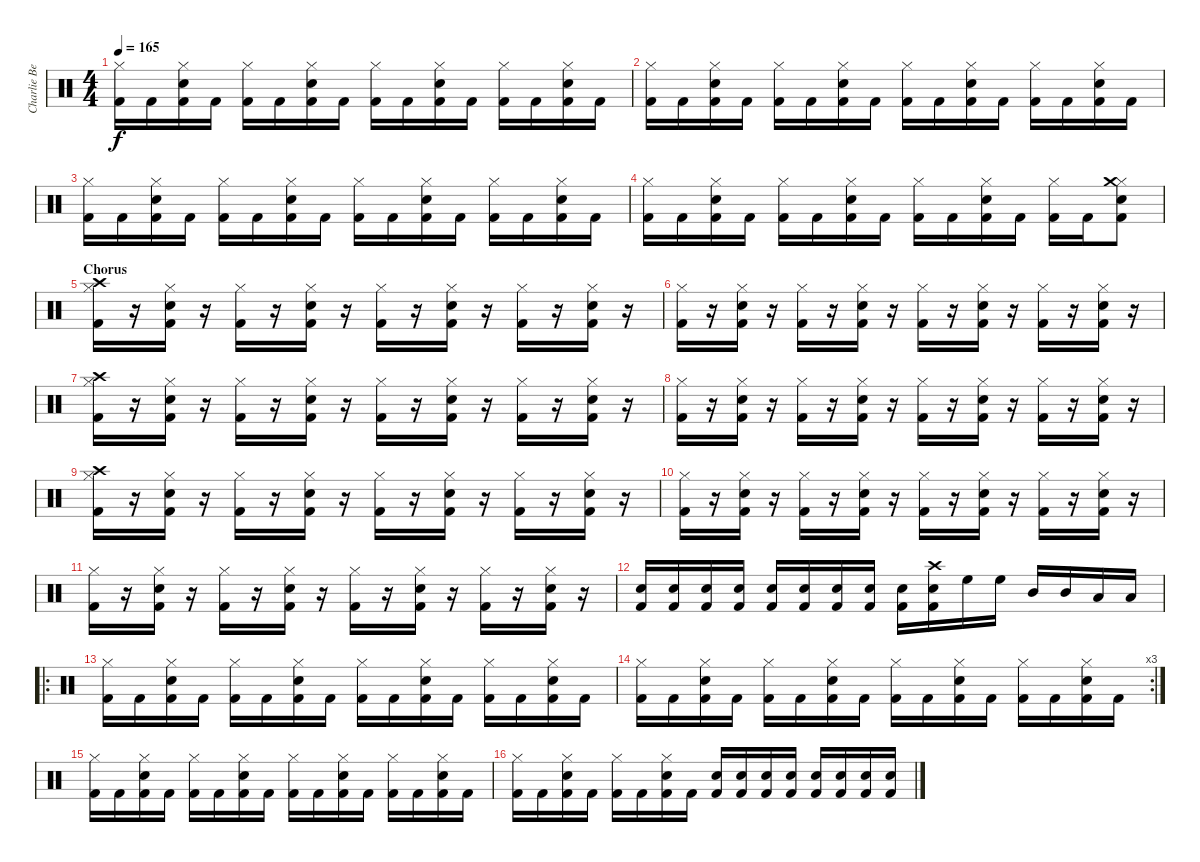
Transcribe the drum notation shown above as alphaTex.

\track ("Charlie Benante" "Charlie Be") {instrument percussion}
\staff {score}
\articulation defaults
\ts (4 4)
\tempo 165
\clef neutral
\ks c
("Kick (hit) 2" "Hi-Hat (closed)").16{dy f} "Kick (hit) 2".16 ("Kick (hit) 2" "Hi-Hat (closed)" "Electric Snare (hit)").16 "Kick (hit) 2".16 ("Kick (hit) 2" "Hi-Hat (closed)").16 "Kick (hit) 2".16 ("Kick (hit) 2" "Hi-Hat (closed)" "Electric Snare (hit)").16 "Kick (hit) 2".16 ("Kick (hit) 2" "Hi-Hat (closed)").16 "Kick (hit) 2".16 ("Kick (hit) 2" "Hi-Hat (closed)" "Electric Snare (hit)").16 "Kick (hit) 2".16 ("Kick (hit) 2" "Hi-Hat (closed)").16 "Kick (hit) 2".16 ("Kick (hit) 2" "Hi-Hat (closed)" "Electric Snare (hit)").16 "Kick (hit) 2".16 |
("Kick (hit) 2" "Hi-Hat (closed)").16 "Kick (hit) 2".16 ("Kick (hit) 2" "Hi-Hat (closed)" "Electric Snare (hit)").16 "Kick (hit) 2".16 ("Kick (hit) 2" "Hi-Hat (closed)").16 "Kick (hit) 2".16 ("Kick (hit) 2" "Hi-Hat (closed)" "Electric Snare (hit)").16 "Kick (hit) 2".16 ("Kick (hit) 2" "Hi-Hat (closed)").16 "Kick (hit) 2".16 ("Kick (hit) 2" "Hi-Hat (closed)" "Electric Snare (hit)").16 "Kick (hit) 2".16 ("Kick (hit) 2" "Hi-Hat (closed)").16 "Kick (hit) 2".16 ("Kick (hit) 2" "Hi-Hat (closed)" "Electric Snare (hit)").16 "Kick (hit) 2".16 |
("Kick (hit) 2" "Hi-Hat (closed)").16 "Kick (hit) 2".16 ("Kick (hit) 2" "Hi-Hat (closed)" "Electric Snare (hit)").16 "Kick (hit) 2".16 ("Kick (hit) 2" "Hi-Hat (closed)").16 "Kick (hit) 2".16 ("Kick (hit) 2" "Hi-Hat (closed)" "Electric Snare (hit)").16 "Kick (hit) 2".16 ("Kick (hit) 2" "Hi-Hat (closed)").16 "Kick (hit) 2".16 ("Kick (hit) 2" "Hi-Hat (closed)" "Electric Snare (hit)").16 "Kick (hit) 2".16 ("Kick (hit) 2" "Hi-Hat (closed)").16 "Kick (hit) 2".16 ("Kick (hit) 2" "Hi-Hat (closed)" "Electric Snare (hit)").16 "Kick (hit) 2".16 |
("Kick (hit) 2" "Hi-Hat (closed)").16 "Kick (hit) 2".16 ("Kick (hit) 2" "Hi-Hat (closed)" "Electric Snare (hit)").16 "Kick (hit) 2".16 ("Kick (hit) 2" "Hi-Hat (closed)").16 "Kick (hit) 2".16 ("Kick (hit) 2" "Hi-Hat (closed)" "Electric Snare (hit)").16 "Kick (hit) 2".16 ("Kick (hit) 2" "Hi-Hat (closed)").16 "Kick (hit) 2".16 ("Kick (hit) 2" "Hi-Hat (closed)" "Electric Snare (hit)").16 "Kick (hit) 2".16 ("Kick (hit) 2" "Hi-Hat (closed)").16 "Kick (hit) 2".16 ("Kick (hit) 2" "Hi-Hat (closed)" "Electric Snare (hit)" "Crash medium (hit)").8 |
\section ("" "Chorus")
("Kick (hit) 2" "Hi-Hat (closed)" "Crash high (hit)").16 r.16 ("Kick (hit) 2" "Hi-Hat (closed)" "Electric Snare (hit)").16 r.16 ("Kick (hit) 2" "Hi-Hat (closed)").16 r.16 ("Kick (hit) 2" "Hi-Hat (closed)" "Electric Snare (hit)").16 r.16 ("Kick (hit) 2" "Hi-Hat (closed)").16 r.16 ("Kick (hit) 2" "Hi-Hat (closed)" "Electric Snare (hit)").16 r.16 ("Kick (hit) 2" "Hi-Hat (closed)").16 r.16 ("Kick (hit) 2" "Hi-Hat (closed)" "Electric Snare (hit)").16 r.16 |
("Kick (hit) 2" "Hi-Hat (closed)").16 r.16 ("Kick (hit) 2" "Hi-Hat (closed)" "Electric Snare (hit)").16 r.16 ("Kick (hit) 2" "Hi-Hat (closed)").16 r.16 ("Kick (hit) 2" "Hi-Hat (closed)" "Electric Snare (hit)").16 r.16 ("Kick (hit) 2" "Hi-Hat (closed)").16 r.16 ("Kick (hit) 2" "Hi-Hat (closed)" "Electric Snare (hit)").16 r.16 ("Kick (hit) 2" "Hi-Hat (closed)").16 r.16 ("Kick (hit) 2" "Hi-Hat (closed)" "Electric Snare (hit)").16 r.16 |
("Kick (hit) 2" "Hi-Hat (closed)" "Crash high (hit)").16 r.16 ("Kick (hit) 2" "Hi-Hat (closed)" "Electric Snare (hit)").16 r.16 ("Kick (hit) 2" "Hi-Hat (closed)").16 r.16 ("Kick (hit) 2" "Hi-Hat (closed)" "Electric Snare (hit)").16 r.16 ("Kick (hit) 2" "Hi-Hat (closed)").16 r.16 ("Kick (hit) 2" "Hi-Hat (closed)" "Electric Snare (hit)").16 r.16 ("Kick (hit) 2" "Hi-Hat (closed)").16 r.16 ("Kick (hit) 2" "Hi-Hat (closed)" "Electric Snare (hit)").16 r.16 |
("Kick (hit) 2" "Hi-Hat (closed)").16 r.16 ("Kick (hit) 2" "Hi-Hat (closed)" "Electric Snare (hit)").16 r.16 ("Kick (hit) 2" "Hi-Hat (closed)").16 r.16 ("Kick (hit) 2" "Hi-Hat (closed)" "Electric Snare (hit)").16 r.16 ("Kick (hit) 2" "Hi-Hat (closed)").16 r.16 ("Kick (hit) 2" "Hi-Hat (closed)" "Electric Snare (hit)").16 r.16 ("Kick (hit) 2" "Hi-Hat (closed)").16 r.16 ("Kick (hit) 2" "Hi-Hat (closed)" "Electric Snare (hit)").16 r.16 |
("Kick (hit) 2" "Hi-Hat (closed)" "Crash high (hit)").16 r.16 ("Kick (hit) 2" "Hi-Hat (closed)" "Electric Snare (hit)").16 r.16 ("Kick (hit) 2" "Hi-Hat (closed)").16 r.16 ("Kick (hit) 2" "Hi-Hat (closed)" "Electric Snare (hit)").16 r.16 ("Kick (hit) 2" "Hi-Hat (closed)").16 r.16 ("Kick (hit) 2" "Hi-Hat (closed)" "Electric Snare (hit)").16 r.16 ("Kick (hit) 2" "Hi-Hat (closed)").16 r.16 ("Kick (hit) 2" "Hi-Hat (closed)" "Electric Snare (hit)").16 r.16 |
("Kick (hit) 2" "Hi-Hat (closed)").16 r.16 ("Kick (hit) 2" "Hi-Hat (closed)" "Electric Snare (hit)").16 r.16 ("Kick (hit) 2" "Hi-Hat (closed)").16 r.16 ("Kick (hit) 2" "Hi-Hat (closed)" "Electric Snare (hit)").16 r.16 ("Kick (hit) 2" "Hi-Hat (closed)").16 r.16 ("Kick (hit) 2" "Hi-Hat (closed)" "Electric Snare (hit)").16 r.16 ("Kick (hit) 2" "Hi-Hat (closed)").16 r.16 ("Kick (hit) 2" "Hi-Hat (closed)" "Electric Snare (hit)").16 r.16 |
("Kick (hit) 2" "Hi-Hat (closed)").16 r.16 ("Kick (hit) 2" "Hi-Hat (closed)" "Electric Snare (hit)").16 r.16 ("Kick (hit) 2" "Hi-Hat (closed)").16 r.16 ("Kick (hit) 2" "Hi-Hat (closed)" "Electric Snare (hit)").16 r.16 ("Kick (hit) 2" "Hi-Hat (closed)").16 r.16 ("Kick (hit) 2" "Hi-Hat (closed)" "Electric Snare (hit)").16 r.16 ("Kick (hit) 2" "Hi-Hat (closed)").16 r.16 ("Kick (hit) 2" "Hi-Hat (closed)" "Electric Snare (hit)").16 r.16 |
("Electric Snare (hit)" "Kick (hit) 2").16 ("Electric Snare (hit)" "Kick (hit) 2").16 ("Electric Snare (hit)" "Kick (hit) 2").16 ("Electric Snare (hit)" "Kick (hit) 2").16 ("Electric Snare (hit)" "Kick (hit) 2").16 ("Electric Snare (hit)" "Kick (hit) 2").16 ("Electric Snare (hit)" "Kick (hit) 2").16 ("Electric Snare (hit)" "Kick (hit) 2").16 ("Electric Snare (hit)" "Kick (hit) 2").16 ("Crash high (hit)" "Electric Snare (hit)" "Kick (hit) 2").16 "High Floor Tom (hit)".16 "High Floor Tom (hit)".16 "Mid Tom (hit)".16 "Mid Tom (hit)".16 "Low Floor Tom (hit)".16 "Low Floor Tom (hit)".16 |
\ro
("Kick (hit) 2" "Hi-Hat (closed)").16 "Kick (hit) 2".16 ("Kick (hit) 2" "Hi-Hat (closed)" "Electric Snare (hit)").16 "Kick (hit) 2".16 ("Kick (hit) 2" "Hi-Hat (closed)").16 "Kick (hit) 2".16 ("Kick (hit) 2" "Hi-Hat (closed)" "Electric Snare (hit)").16 "Kick (hit) 2".16 ("Kick (hit) 2" "Hi-Hat (closed)").16 "Kick (hit) 2".16 ("Kick (hit) 2" "Hi-Hat (closed)" "Electric Snare (hit)").16 "Kick (hit) 2".16 ("Kick (hit) 2" "Hi-Hat (closed)").16 "Kick (hit) 2".16 ("Kick (hit) 2" "Hi-Hat (closed)" "Electric Snare (hit)").16 "Kick (hit) 2".16 |
\rc 3
("Kick (hit) 2" "Hi-Hat (closed)").16 "Kick (hit) 2".16 ("Kick (hit) 2" "Hi-Hat (closed)" "Electric Snare (hit)").16 "Kick (hit) 2".16 ("Kick (hit) 2" "Hi-Hat (closed)").16 "Kick (hit) 2".16 ("Kick (hit) 2" "Hi-Hat (closed)" "Electric Snare (hit)").16 "Kick (hit) 2".16 ("Kick (hit) 2" "Hi-Hat (closed)").16 "Kick (hit) 2".16 ("Kick (hit) 2" "Hi-Hat (closed)" "Electric Snare (hit)").16 "Kick (hit) 2".16 ("Kick (hit) 2" "Hi-Hat (closed)").16 "Kick (hit) 2".16 ("Kick (hit) 2" "Hi-Hat (closed)" "Electric Snare (hit)").16 "Kick (hit) 2".16 |
("Kick (hit) 2" "Hi-Hat (closed)").16 "Kick (hit) 2".16 ("Kick (hit) 2" "Hi-Hat (closed)" "Electric Snare (hit)").16 "Kick (hit) 2".16 ("Kick (hit) 2" "Hi-Hat (closed)").16 "Kick (hit) 2".16 ("Kick (hit) 2" "Hi-Hat (closed)" "Electric Snare (hit)").16 "Kick (hit) 2".16 ("Kick (hit) 2" "Hi-Hat (closed)").16 "Kick (hit) 2".16 ("Kick (hit) 2" "Hi-Hat (closed)" "Electric Snare (hit)").16 "Kick (hit) 2".16 ("Kick (hit) 2" "Hi-Hat (closed)").16 "Kick (hit) 2".16 ("Kick (hit) 2" "Hi-Hat (closed)" "Electric Snare (hit)").16 "Kick (hit) 2".16 |
("Kick (hit) 2" "Hi-Hat (closed)").16 "Kick (hit) 2".16 ("Kick (hit) 2" "Hi-Hat (closed)" "Electric Snare (hit)").16 "Kick (hit) 2".16 ("Kick (hit) 2" "Hi-Hat (closed)").16 "Kick (hit) 2".16 ("Kick (hit) 2" "Hi-Hat (closed)" "Electric Snare (hit)").16 "Kick (hit) 2".16 ("Kick (hit) 2" "Electric Snare (hit)").16 ("Kick (hit) 2" "Electric Snare (hit)").16 ("Kick (hit) 2" "Electric Snare (hit)").16 ("Kick (hit) 2" "Electric Snare (hit)").16 ("Kick (hit) 2" "Electric Snare (hit)").16 ("Kick (hit) 2" "Electric Snare (hit)").16 ("Kick (hit) 2" "Electric Snare (hit)").16 ("Kick (hit) 2" "Electric Snare (hit)").16
